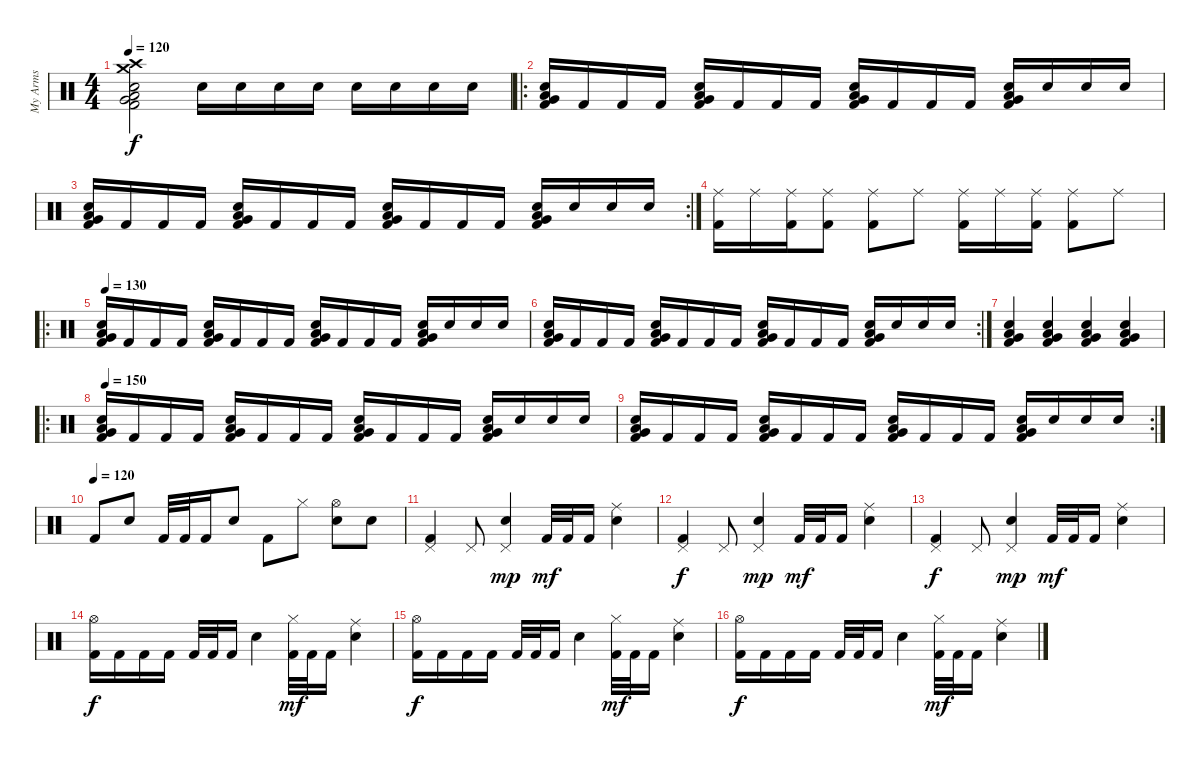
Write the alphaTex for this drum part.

\track ("My Arms" "My Arms") {instrument percussion}
\staff {score}
\articulation defaults
\ts (4 4)
\tempo 120
\clef neutral
\ks c
("Crash high (hit)" "Crash medium (hit)" "Kick (hit) 2" "Snare (hit) 2" "Low Tom (hit)" "Very Low Tom (hit)").2{dy f} "Snare (hit) 2".16 "Snare (hit) 2".16 "Snare (hit) 2".16 "Snare (hit) 2".16 "Snare (hit) 2".16 "Snare (hit) 2".16 "Snare (hit) 2".16 "Snare (hit) 2".16 |
\ro
("Very Low Tom (hit)" "Low Tom (hit)" "Kick (hit) 2" "Snare (hit) 2").16 "Kick (hit) 2".16 "Kick (hit) 2".16 "Kick (hit) 2".16 ("Very Low Tom (hit)" "Low Tom (hit)" "Kick (hit) 2" "Snare (hit) 2").16 "Kick (hit) 2".16 "Kick (hit) 2".16 "Kick (hit) 2".16 ("Very Low Tom (hit)" "Low Tom (hit)" "Kick (hit) 2" "Snare (hit) 2").16 "Kick (hit) 2".16 "Kick (hit) 2".16 "Kick (hit) 2".16 ("Very Low Tom (hit)" "Low Tom (hit)" "Kick (hit) 2" "Snare (hit) 2").16 "Snare (hit) 2".16 "Snare (hit) 2".16 "Snare (hit) 2".16 |
\rc 2
("Very Low Tom (hit)" "Low Tom (hit)" "Kick (hit) 2" "Snare (hit) 2").16 "Kick (hit) 2".16 "Kick (hit) 2".16 "Kick (hit) 2".16 ("Very Low Tom (hit)" "Low Tom (hit)" "Kick (hit) 2" "Snare (hit) 2").16 "Kick (hit) 2".16 "Kick (hit) 2".16 "Kick (hit) 2".16 ("Very Low Tom (hit)" "Low Tom (hit)" "Kick (hit) 2" "Snare (hit) 2").16 "Kick (hit) 2".16 "Kick (hit) 2".16 "Kick (hit) 2".16 ("Very Low Tom (hit)" "Low Tom (hit)" "Kick (hit) 2" "Snare (hit) 2").16 "Snare (hit) 2".16 "Snare (hit) 2".16 "Snare (hit) 2".16 |
("Ride (middle)" "Kick (hit) 2").16 "Ride (middle)".16 ("Ride (middle)" "Kick (hit) 2").16 ("Ride (middle)" "Kick (hit) 2").8 ("Ride (middle)" "Kick (hit) 2").8 "Ride (middle)".8 ("Ride (middle)" "Kick (hit) 2").16 "Ride (middle)".16 ("Ride (middle)" "Kick (hit) 2").16 ("Ride (middle)" "Kick (hit) 2").8 "Ride (middle)".8 |
\ro
\tempo 130
("Very Low Tom (hit)" "Low Tom (hit)" "Kick (hit) 2" "Snare (hit) 2").16 "Kick (hit) 2".16 "Kick (hit) 2".16 "Kick (hit) 2".16 ("Very Low Tom (hit)" "Low Tom (hit)" "Kick (hit) 2" "Snare (hit) 2").16 "Kick (hit) 2".16 "Kick (hit) 2".16 "Kick (hit) 2".16 ("Very Low Tom (hit)" "Low Tom (hit)" "Kick (hit) 2" "Snare (hit) 2").16 "Kick (hit) 2".16 "Kick (hit) 2".16 "Kick (hit) 2".16 ("Very Low Tom (hit)" "Low Tom (hit)" "Kick (hit) 2" "Snare (hit) 2").16 "Snare (hit) 2".16 "Snare (hit) 2".16 "Snare (hit) 2".16 |
\rc 2
("Very Low Tom (hit)" "Low Tom (hit)" "Kick (hit) 2" "Snare (hit) 2").16 "Kick (hit) 2".16 "Kick (hit) 2".16 "Kick (hit) 2".16 ("Very Low Tom (hit)" "Low Tom (hit)" "Kick (hit) 2" "Snare (hit) 2").16 "Kick (hit) 2".16 "Kick (hit) 2".16 "Kick (hit) 2".16 ("Very Low Tom (hit)" "Low Tom (hit)" "Kick (hit) 2" "Snare (hit) 2").16 "Kick (hit) 2".16 "Kick (hit) 2".16 "Kick (hit) 2".16 ("Very Low Tom (hit)" "Low Tom (hit)" "Kick (hit) 2" "Snare (hit) 2").16 "Snare (hit) 2".16 "Snare (hit) 2".16 "Snare (hit) 2".16 |
("Very Low Tom (hit)" "Low Tom (hit)" "Kick (hit) 2" "Snare (hit) 2").4 ("Very Low Tom (hit)" "Low Tom (hit)" "Kick (hit) 2" "Snare (hit) 2").4 ("Very Low Tom (hit)" "Low Tom (hit)" "Kick (hit) 2" "Snare (hit) 2").4 ("Very Low Tom (hit)" "Low Tom (hit)" "Kick (hit) 2" "Snare (hit) 2").4 |
\ro
\tempo 150
("Very Low Tom (hit)" "Low Tom (hit)" "Kick (hit) 2" "Snare (hit) 2").16 "Kick (hit) 2".16 "Kick (hit) 2".16 "Kick (hit) 2".16 ("Very Low Tom (hit)" "Low Tom (hit)" "Kick (hit) 2" "Snare (hit) 2").16 "Kick (hit) 2".16 "Kick (hit) 2".16 "Kick (hit) 2".16 ("Very Low Tom (hit)" "Low Tom (hit)" "Kick (hit) 2" "Snare (hit) 2").16 "Kick (hit) 2".16 "Kick (hit) 2".16 "Kick (hit) 2".16 ("Very Low Tom (hit)" "Low Tom (hit)" "Kick (hit) 2" "Snare (hit) 2").16 "Snare (hit) 2".16 "Snare (hit) 2".16 "Snare (hit) 2".16 |
\rc 2
("Very Low Tom (hit)" "Low Tom (hit)" "Kick (hit) 2" "Snare (hit) 2").16 "Kick (hit) 2".16 "Kick (hit) 2".16 "Kick (hit) 2".16 ("Very Low Tom (hit)" "Low Tom (hit)" "Kick (hit) 2" "Snare (hit) 2").16 "Kick (hit) 2".16 "Kick (hit) 2".16 "Kick (hit) 2".16 ("Very Low Tom (hit)" "Low Tom (hit)" "Kick (hit) 2" "Snare (hit) 2").16 "Kick (hit) 2".16 "Kick (hit) 2".16 "Kick (hit) 2".16 ("Very Low Tom (hit)" "Low Tom (hit)" "Kick (hit) 2" "Snare (hit) 2").16 "Snare (hit) 2".16 "Snare (hit) 2".16 "Snare (hit) 2".16 |
\tempo (120)
"Kick (hit) 2".8 "Snare (hit) 2".8 "Kick (hit) 2".32 "Kick (hit) 2".32 "Kick (hit) 2".16 "Snare (hit) 2".8 "Kick (hit) 2".8 "Hi-Hat (closed)".8 ("Hi-Hat (open)" "Snare (hit) 2").8 "Snare (hit) 2".8 |
("Pedal Hi-Hat (hit)" "Kick (hit) 2").4 "Pedal Hi-Hat (hit)".8 ("Pedal Hi-Hat (hit)" "Snare (hit) 2").4{dy mp} "Kick (hit) 2".32{dy mf} "Kick (hit) 2".32 "Kick (hit) 2".16 ("Ride (middle)" "Snare (hit) 2").4 |
("Pedal Hi-Hat (hit)" "Kick (hit) 2").4{dy f} "Pedal Hi-Hat (hit)".8 ("Pedal Hi-Hat (hit)" "Snare (hit) 2").4{dy mp} "Kick (hit) 2".32{dy mf} "Kick (hit) 2".32 "Kick (hit) 2".16 ("Ride (middle)" "Snare (hit) 2").4 |
("Pedal Hi-Hat (hit)" "Kick (hit) 2").4{dy f} "Pedal Hi-Hat (hit)".8 ("Pedal Hi-Hat (hit)" "Snare (hit) 2").4{dy mp} "Kick (hit) 2".32{dy mf} "Kick (hit) 2".32 "Kick (hit) 2".16 ("Ride (middle)" "Snare (hit) 2").4 |
("Hi-Hat (open)" "Kick (hit) 2").16{dy f} "Kick (hit) 2".16 "Kick (hit) 2".16 "Kick (hit) 2".16 "Kick (hit) 2".32 "Kick (hit) 2".32 "Kick (hit) 2".16 "Snare (hit) 2".4 ("Hi-Hat (closed)" "Kick (hit) 2").32{dy mf} "Kick (hit) 2".32 "Kick (hit) 2".16 ("Ride (middle)" "Snare (hit) 2").4 |
("Hi-Hat (open)" "Kick (hit) 2").16{dy f volume 0} "Kick (hit) 2".16 "Kick (hit) 2".16 "Kick (hit) 2".16 "Kick (hit) 2".32 "Kick (hit) 2".32 "Kick (hit) 2".16 "Snare (hit) 2".4 ("Hi-Hat (closed)" "Kick (hit) 2").32{dy mf} "Kick (hit) 2".32 "Kick (hit) 2".16 ("Ride (middle)" "Snare (hit) 2").4 |
("Hi-Hat (open)" "Kick (hit) 2").16{dy f} "Kick (hit) 2".16 "Kick (hit) 2".16 "Kick (hit) 2".16 "Kick (hit) 2".32 "Kick (hit) 2".32 "Kick (hit) 2".16 "Snare (hit) 2".4 ("Hi-Hat (closed)" "Kick (hit) 2").32{dy mf} "Kick (hit) 2".32 "Kick (hit) 2".16 ("Ride (middle)" "Snare (hit) 2").4
